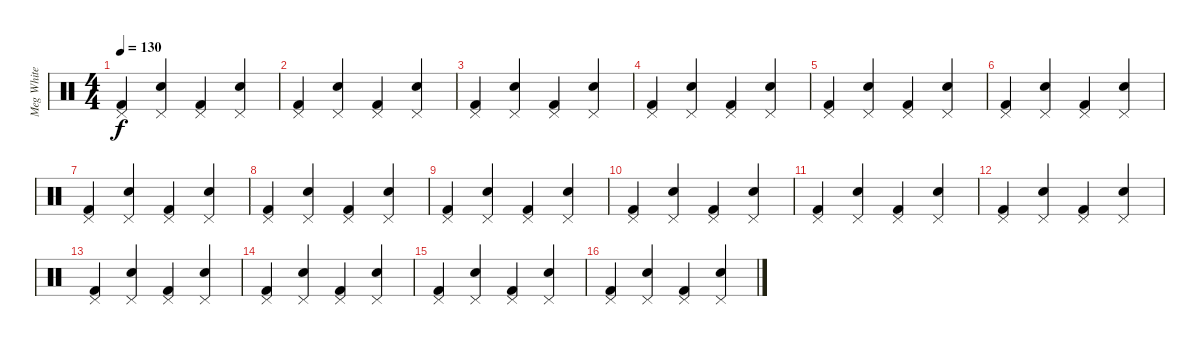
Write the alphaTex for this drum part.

\track ("Meg White" "Meg White") {instrument percussion}
\staff {score}
\articulation defaults
\ts (4 4)
\tempo 130
\clef neutral
\ks c
("Kick (hit) 2" "Pedal Hi-Hat (hit)").4{dy f} ("Electric Snare (hit)" "Pedal Hi-Hat (hit)").4 ("Kick (hit) 2" "Pedal Hi-Hat (hit)").4 ("Electric Snare (hit)" "Pedal Hi-Hat (hit)").4 |
("Kick (hit) 2" "Pedal Hi-Hat (hit)").4 ("Electric Snare (hit)" "Pedal Hi-Hat (hit)").4 ("Kick (hit) 2" "Pedal Hi-Hat (hit)").4 ("Electric Snare (hit)" "Pedal Hi-Hat (hit)").4 |
("Kick (hit) 2" "Pedal Hi-Hat (hit)").4 ("Electric Snare (hit)" "Pedal Hi-Hat (hit)").4 ("Kick (hit) 2" "Pedal Hi-Hat (hit)").4 ("Electric Snare (hit)" "Pedal Hi-Hat (hit)").4 |
("Kick (hit) 2" "Pedal Hi-Hat (hit)").4 ("Electric Snare (hit)" "Pedal Hi-Hat (hit)").4 ("Kick (hit) 2" "Pedal Hi-Hat (hit)").4 ("Electric Snare (hit)" "Pedal Hi-Hat (hit)").4 |
("Kick (hit) 2" "Pedal Hi-Hat (hit)").4 ("Electric Snare (hit)" "Pedal Hi-Hat (hit)").4 ("Kick (hit) 2" "Pedal Hi-Hat (hit)").4 ("Electric Snare (hit)" "Pedal Hi-Hat (hit)").4 |
("Kick (hit) 2" "Pedal Hi-Hat (hit)").4 ("Electric Snare (hit)" "Pedal Hi-Hat (hit)").4 ("Kick (hit) 2" "Pedal Hi-Hat (hit)").4 ("Electric Snare (hit)" "Pedal Hi-Hat (hit)").4 |
("Kick (hit) 2" "Pedal Hi-Hat (hit)").4 ("Electric Snare (hit)" "Pedal Hi-Hat (hit)").4 ("Kick (hit) 2" "Pedal Hi-Hat (hit)").4 ("Electric Snare (hit)" "Pedal Hi-Hat (hit)").4 |
("Kick (hit) 2" "Pedal Hi-Hat (hit)").4 ("Electric Snare (hit)" "Pedal Hi-Hat (hit)").4 ("Kick (hit) 2" "Pedal Hi-Hat (hit)").4 ("Electric Snare (hit)" "Pedal Hi-Hat (hit)").4 |
("Kick (hit) 2" "Pedal Hi-Hat (hit)").4 ("Electric Snare (hit)" "Pedal Hi-Hat (hit)").4 ("Kick (hit) 2" "Pedal Hi-Hat (hit)").4 ("Electric Snare (hit)" "Pedal Hi-Hat (hit)").4 |
("Kick (hit) 2" "Pedal Hi-Hat (hit)").4 ("Electric Snare (hit)" "Pedal Hi-Hat (hit)").4 ("Kick (hit) 2" "Pedal Hi-Hat (hit)").4 ("Electric Snare (hit)" "Pedal Hi-Hat (hit)").4 |
("Kick (hit) 2" "Pedal Hi-Hat (hit)").4 ("Electric Snare (hit)" "Pedal Hi-Hat (hit)").4 ("Kick (hit) 2" "Pedal Hi-Hat (hit)").4 ("Electric Snare (hit)" "Pedal Hi-Hat (hit)").4 |
("Kick (hit) 2" "Pedal Hi-Hat (hit)").4 ("Electric Snare (hit)" "Pedal Hi-Hat (hit)").4 ("Kick (hit) 2" "Pedal Hi-Hat (hit)").4 ("Electric Snare (hit)" "Pedal Hi-Hat (hit)").4 |
("Kick (hit) 2" "Pedal Hi-Hat (hit)").4 ("Electric Snare (hit)" "Pedal Hi-Hat (hit)").4 ("Kick (hit) 2" "Pedal Hi-Hat (hit)").4 ("Electric Snare (hit)" "Pedal Hi-Hat (hit)").4 |
("Kick (hit) 2" "Pedal Hi-Hat (hit)").4 ("Electric Snare (hit)" "Pedal Hi-Hat (hit)").4 ("Kick (hit) 2" "Pedal Hi-Hat (hit)").4 ("Electric Snare (hit)" "Pedal Hi-Hat (hit)").4 |
("Kick (hit) 2" "Pedal Hi-Hat (hit)").4 ("Electric Snare (hit)" "Pedal Hi-Hat (hit)").4 ("Kick (hit) 2" "Pedal Hi-Hat (hit)").4 ("Electric Snare (hit)" "Pedal Hi-Hat (hit)").4 |
("Kick (hit) 2" "Pedal Hi-Hat (hit)").4 ("Electric Snare (hit)" "Pedal Hi-Hat (hit)").4 ("Kick (hit) 2" "Pedal Hi-Hat (hit)").4 ("Electric Snare (hit)" "Pedal Hi-Hat (hit)").4
